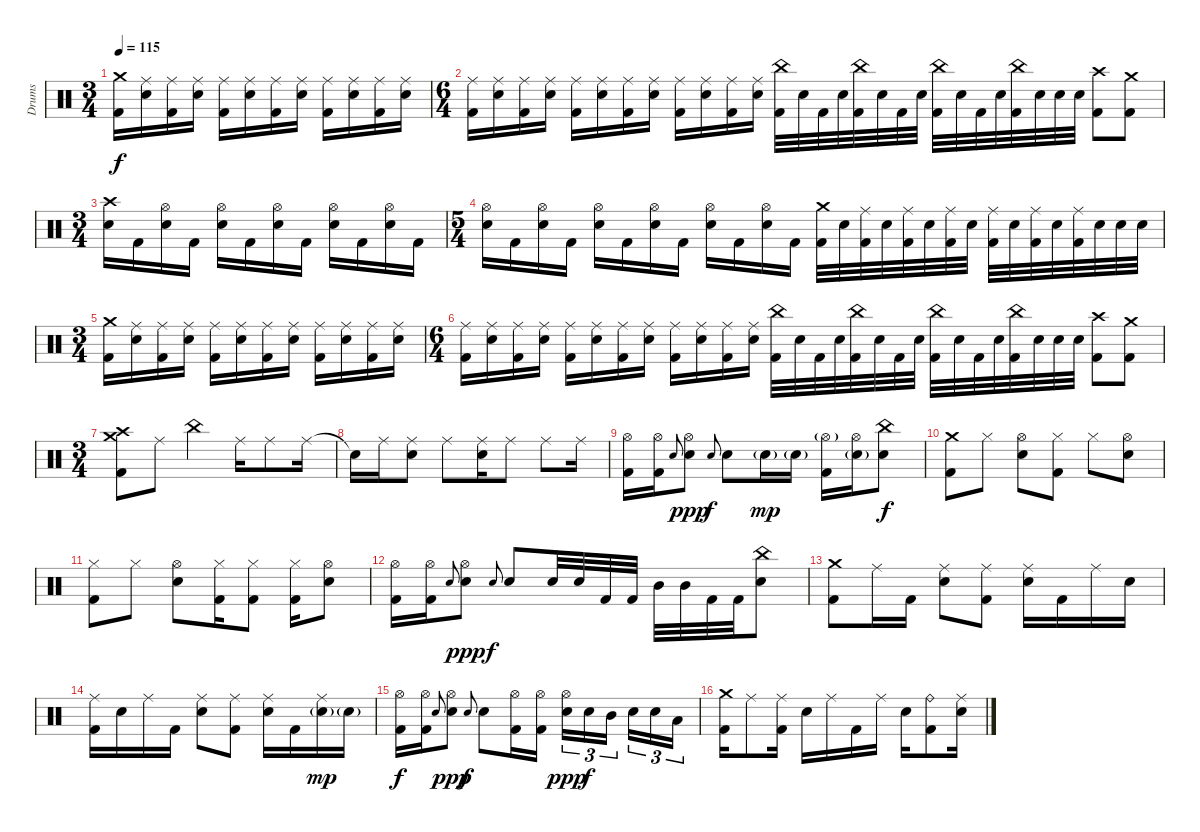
\track ("Drums" "Drums") {instrument percussion}
\staff {score}
\articulation defaults
\ts (3 4)
\tempo 115
\clef neutral
\ks c
("Crash medium (hit)" "Kick (hit) 2").16{dy f} ("Ride (middle)" "Electric Snare (hit)").16 ("Ride (middle)" "Kick (hit) 2").16 ("Ride (middle)" "Electric Snare (hit)").16 ("Ride (middle)" "Kick (hit) 2").16 ("Ride (middle)" "Electric Snare (hit)").16 ("Ride (middle)" "Kick (hit) 2").16 ("Ride (middle)" "Electric Snare (hit)").16 ("Ride (middle)" "Kick (hit) 2").16 ("Ride (middle)" "Electric Snare (hit)").16 ("Ride (middle)" "Kick (hit) 2").16 ("Ride (middle)" "Electric Snare (hit)").16 |
\ts (6 4)
("Ride (middle)" "Kick (hit) 2").16 ("Ride (middle)" "Electric Snare (hit)").16 ("Ride (middle)" "Kick (hit) 2").16 ("Ride (middle)" "Electric Snare (hit)").16 ("Ride (middle)" "Kick (hit) 2").16 ("Ride (middle)" "Electric Snare (hit)").16 ("Ride (middle)" "Kick (hit) 2").16 ("Ride (middle)" "Electric Snare (hit)").16 ("Ride (middle)" "Kick (hit) 2").16 ("Ride (middle)" "Electric Snare (hit)").16 ("Ride (middle)" "Kick (hit) 2").16 ("Ride (middle)" "Electric Snare (hit)").16 ("China (hit)" "Kick (hit) 2").32 "Electric Snare (hit)".32 "Kick (hit) 2".32 "Electric Snare (hit)".32 ("China (hit)" "Kick (hit) 2").32 "Electric Snare (hit)".32 "Kick (hit) 2".32 "Electric Snare (hit)".32 ("China (hit)" "Kick (hit) 2").32 "Electric Snare (hit)".32 "Kick (hit) 2".32 "Electric Snare (hit)".32 ("China (hit)" "Kick (hit) 2").32 "Electric Snare (hit)".32 "Electric Snare (hit)".32 "Electric Snare (hit)".32 ("Crash high (hit)" "Kick (hit) 2").8 ("Crash medium (hit)" "Kick (hit) 2").8 |
\ts (3 4)
("Crash high (hit)" "Electric Snare (hit)").16 "Kick (hit) 2".16 ("Hi-Hat (open)" "Electric Snare (hit)").16 "Kick (hit) 2".16 ("Hi-Hat (open)" "Electric Snare (hit)").16 "Kick (hit) 2".16 ("Hi-Hat (open)" "Electric Snare (hit)").16 "Kick (hit) 2".16 ("Hi-Hat (open)" "Electric Snare (hit)").16 "Kick (hit) 2".16 ("Hi-Hat (open)" "Electric Snare (hit)").16 "Kick (hit) 2".16 |
\ts (5 4)
("Hi-Hat (open)" "Electric Snare (hit)").16 "Kick (hit) 2".16 ("Hi-Hat (open)" "Electric Snare (hit)").16 "Kick (hit) 2".16 ("Hi-Hat (open)" "Electric Snare (hit)").16 "Kick (hit) 2".16 ("Hi-Hat (open)" "Electric Snare (hit)").16 "Kick (hit) 2".16 ("Hi-Hat (open)" "Electric Snare (hit)").16 "Kick (hit) 2".16 ("Hi-Hat (open)" "Electric Snare (hit)").16 "Kick (hit) 2".16 ("Crash medium (hit)" "Kick (hit) 2").32 "Electric Snare (hit)".32 ("Ride (middle)" "Kick (hit) 2").32 "Electric Snare (hit)".32 ("Ride (middle)" "Kick (hit) 2").32 "Electric Snare (hit)".32 ("Ride (middle)" "Kick (hit) 2").32 "Electric Snare (hit)".32 ("Ride (middle)" "Kick (hit) 2").32 "Electric Snare (hit)".32 ("Ride (middle)" "Kick (hit) 2").32 "Electric Snare (hit)".32 ("Ride (middle)" "Kick (hit) 2").32 "Electric Snare (hit)".32 "Electric Snare (hit)".32 "Electric Snare (hit)".32 |
\ts (3 4)
("Crash medium (hit)" "Kick (hit) 2").16 ("Ride (middle)" "Electric Snare (hit)").16 ("Ride (middle)" "Kick (hit) 2").16 ("Ride (middle)" "Electric Snare (hit)").16 ("Ride (middle)" "Kick (hit) 2").16 ("Ride (middle)" "Electric Snare (hit)").16 ("Ride (middle)" "Kick (hit) 2").16 ("Ride (middle)" "Electric Snare (hit)").16 ("Ride (middle)" "Kick (hit) 2").16 ("Ride (middle)" "Electric Snare (hit)").16 ("Ride (middle)" "Kick (hit) 2").16 ("Ride (middle)" "Electric Snare (hit)").16 |
\ts (6 4)
("Ride (middle)" "Kick (hit) 2").16 ("Ride (middle)" "Electric Snare (hit)").16 ("Ride (middle)" "Kick (hit) 2").16 ("Ride (middle)" "Electric Snare (hit)").16 ("Ride (middle)" "Kick (hit) 2").16 ("Ride (middle)" "Electric Snare (hit)").16 ("Ride (middle)" "Kick (hit) 2").16 ("Ride (middle)" "Electric Snare (hit)").16 ("Ride (middle)" "Kick (hit) 2").16 ("Ride (middle)" "Electric Snare (hit)").16 ("Ride (middle)" "Kick (hit) 2").16 ("Ride (middle)" "Electric Snare (hit)").16 ("China (hit)" "Kick (hit) 2").32 "Electric Snare (hit)".32 "Kick (hit) 2".32 "Electric Snare (hit)".32 ("China (hit)" "Kick (hit) 2").32 "Electric Snare (hit)".32 "Kick (hit) 2".32 "Electric Snare (hit)".32 ("China (hit)" "Kick (hit) 2").32 "Electric Snare (hit)".32 "Kick (hit) 2".32 "Electric Snare (hit)".32 ("China (hit)" "Kick (hit) 2").32 "Electric Snare (hit)".32 "Electric Snare (hit)".32 "Electric Snare (hit)".32 ("Crash high (hit)" "Kick (hit) 2").8 ("Crash medium (hit)" "Kick (hit) 2").8 |
\ts (3 4)
("Crash medium (hit)" "Crash high (hit)" "Kick (hit) 2").8 "Ride (middle)".8 "China (hit)".4 "Ride (middle)".16 "Ride (middle)".8 "Ride (middle)".16 |
"Snare (hit)"{t}.16 "Ride (middle)".16 ("Ride (middle)" "Electric Snare (hit)").8 "Ride (middle)".8 ("Ride (middle)" "Electric Snare (hit)").16 "Ride (middle)".8 "Ride (middle)".8 "Ride (middle)".16 |
("Hi-Hat (open)" "Kick (hit) 2").16 ("Hi-Hat (open)" "Kick (hit) 2").16 "Electric Snare (hit)".8{gr onbeat} ("Hi-Hat (open)" "Electric Snare (hit)").8{dy ppp} "Electric Snare (hit)".8{gr onbeat dy f} "Electric Snare (hit)".8 "Electric Snare (hit)"{g}.16{dy mp} "Electric Snare (hit)"{g}.16 ("Hi-Hat (open)"{g} "Kick (hit) 2").16 ("Hi-Hat (open)" "Electric Snare (hit)"{g}).16 ("China (hit)" "Electric Snare (hit)").8{dy f} |
("Crash medium (hit)" "Kick (hit) 2").8 "Hi-Hat (closed)".8 ("Hi-Hat (open)" "Electric Snare (hit)").8 ("Hi-Hat (closed)" "Kick (hit) 2").8 "Hi-Hat (closed)".8 ("Hi-Hat (open)" "Electric Snare (hit)").8 |
("Hi-Hat (closed)" "Kick (hit) 2").8 "Hi-Hat (closed)".8 ("Hi-Hat (open)" "Electric Snare (hit)").8 ("Hi-Hat (closed)" "Kick (hit) 2").16 ("Hi-Hat (closed)" "Kick (hit) 2").8 ("Hi-Hat (closed)" "Kick (hit) 2").16 ("Hi-Hat (open)" "Electric Snare (hit)").8 |
("Hi-Hat (open)" "Kick (hit) 2").16 ("Hi-Hat (open)" "Kick (hit) 2").16 "Electric Snare (hit)".8{gr onbeat} ("Hi-Hat (open)" "Electric Snare (hit)").8{dy ppp} "Electric Snare (hit)".8{gr onbeat dy f} "Electric Snare (hit)".8 "Electric Snare (hit)".32 "Electric Snare (hit)".32 "Kick (hit) 2".32 "Kick (hit) 2".32 "Mid Tom (hit)".32 "Mid Tom (hit)".32 "Kick (hit) 2".32 "Kick (hit) 2".32 ("China (hit)" "Electric Snare (hit)").8 |
("Crash medium (hit)" "Kick (hit) 2").8 "Ride (middle)".16 "Kick (hit) 2".16 ("Ride (middle)" "Electric Snare (hit)").8 ("Ride (middle)" "Kick (hit) 2").8 ("Ride (middle)" "Electric Snare (hit)").16 "Kick (hit) 2".16 "Ride (middle)".16 "Electric Snare (hit)".16 |
("Ride (middle)" "Kick (hit) 2").16 "Electric Snare (hit)".16 "Ride (middle)".16 "Kick (hit) 2".16 ("Ride (middle)" "Electric Snare (hit)").8 ("Ride (middle)" "Kick (hit) 2").8 ("Ride (middle)" "Electric Snare (hit)").16 "Kick (hit) 2".16 ("Ride (middle)" "Electric Snare (hit)"{g}).16{dy mp} "Electric Snare (hit)"{g}.16 |
("Hi-Hat (open)" "Kick (hit) 2").16{dy f} ("Hi-Hat (open)" "Kick (hit) 2").16 "Electric Snare (hit)".8{gr onbeat} ("Hi-Hat (open)" "Electric Snare (hit)").8{dy ppp} "Electric Snare (hit)".8{gr onbeat dy f} "Electric Snare (hit)".8 ("Hi-Hat (open)" "Kick (hit) 2").16 ("Hi-Hat (open)" "Kick (hit) 2").16 ("Hi-Hat (open)" "Electric Snare (hit)").16{tu (3 2) dy ppp} "Electric Snare (hit)".16{tu (3 2) dy f} "Mid Tom (hit)".16{tu (3 2) beam splitsecondary} "Electric Snare (hit)".16{tu (3 2)} "Electric Snare (hit)".16{tu (3 2)} "Low Tom (hit)".16{tu (3 2)} |
("Crash medium (hit)" "Kick (hit) 2").16 "Ride (middle)".8 ("Ride (middle)" "Kick (hit) 2").16 "Electric Snare (hit)".16 "Ride (middle)".16 "Kick (hit) 2".16 "Ride (middle)".16 "Electric Snare (hit)".16 ("Ride (bell)" "Kick (hit) 2").8 ("Ride (middle)" "Electric Snare (hit)").16
